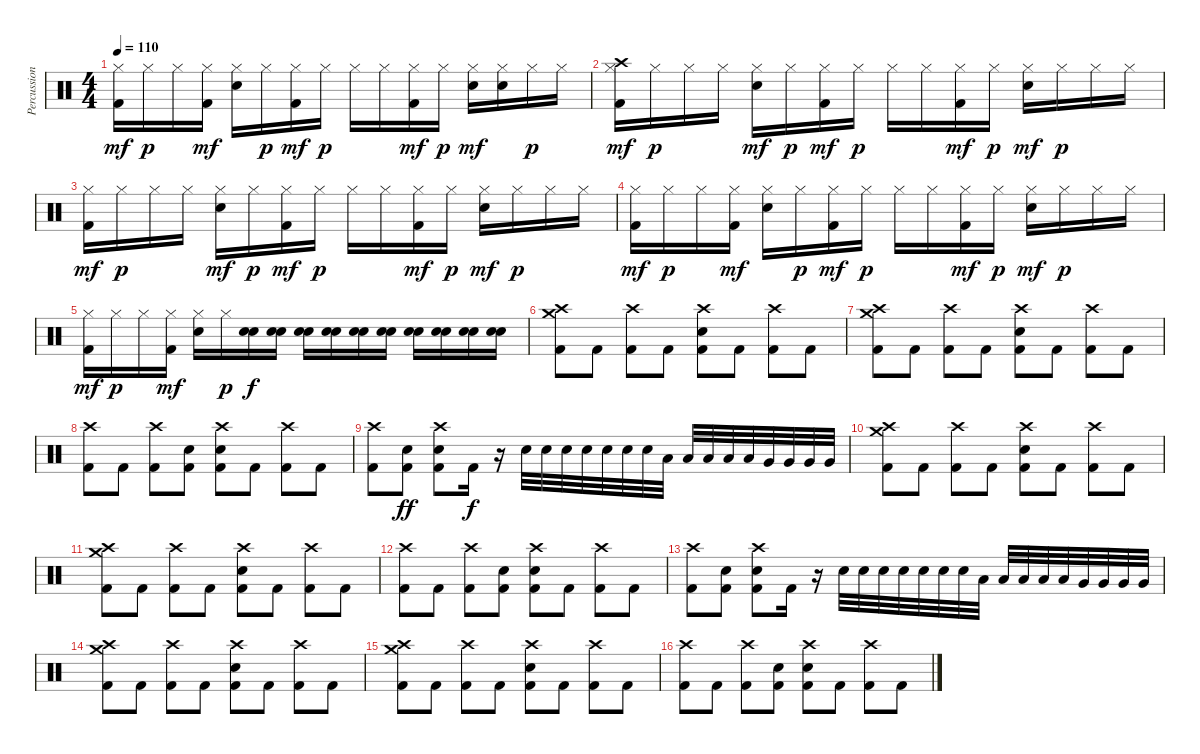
\track ("Percussion" "Percussion") {instrument percussion}
\staff {score}
\articulation defaults
\ts (4 4)
\tempo 110
\clef neutral
\ks c
("Hi-Hat (closed)" "Kick (hit) 2").16{dy mf} "Hi-Hat (closed)".16{dy p} "Hi-Hat (closed)".16 ("Hi-Hat (closed)" "Kick (hit) 2").16{dy mf} ("Hi-Hat (closed)" "Electric Snare (hit)").16 "Hi-Hat (closed)".16{dy p} ("Hi-Hat (closed)" "Kick (hit) 2").16{dy mf} "Hi-Hat (closed)".16{dy p} "Hi-Hat (closed)".16 "Hi-Hat (closed)".16 ("Hi-Hat (closed)" "Kick (hit) 2").16{dy mf} "Hi-Hat (closed)".16{dy p} ("Hi-Hat (closed)" "Electric Snare (hit)").16{dy mf} ("Hi-Hat (closed)" "Electric Snare (hit)").16 "Hi-Hat (closed)".16{dy p} "Hi-Hat (closed)".16 |
("Crash high (hit)" "Hi-Hat (closed)" "Kick (hit) 2").16{dy mf} "Hi-Hat (closed)".16{dy p} "Hi-Hat (closed)".16 "Hi-Hat (closed)".16 ("Hi-Hat (closed)" "Electric Snare (hit)").16{dy mf} "Hi-Hat (closed)".16{dy p} ("Hi-Hat (closed)" "Kick (hit) 2").16{dy mf} "Hi-Hat (closed)".16{dy p} "Hi-Hat (closed)".16 "Hi-Hat (closed)".16 ("Hi-Hat (closed)" "Kick (hit) 2").16{dy mf} "Hi-Hat (closed)".16{dy p} ("Hi-Hat (closed)" "Electric Snare (hit)").16{dy mf} "Hi-Hat (closed)".16{dy p} "Hi-Hat (closed)".16 "Hi-Hat (closed)".16 |
("Hi-Hat (closed)" "Kick (hit) 2").16{dy mf} "Hi-Hat (closed)".16{dy p} "Hi-Hat (closed)".16 "Hi-Hat (closed)".16 ("Hi-Hat (closed)" "Electric Snare (hit)").16{dy mf} "Hi-Hat (closed)".16{dy p} ("Hi-Hat (closed)" "Kick (hit) 2").16{dy mf} "Hi-Hat (closed)".16{dy p} "Hi-Hat (closed)".16 "Hi-Hat (closed)".16 ("Hi-Hat (closed)" "Kick (hit) 2").16{dy mf} "Hi-Hat (closed)".16{dy p} ("Hi-Hat (closed)" "Electric Snare (hit)").16{dy mf} "Hi-Hat (closed)".16{dy p} "Hi-Hat (closed)".16 "Hi-Hat (closed)".16 |
("Hi-Hat (closed)" "Kick (hit) 2").16{dy mf} "Hi-Hat (closed)".16{dy p} "Hi-Hat (closed)".16 ("Hi-Hat (closed)" "Kick (hit) 2").16{dy mf} ("Hi-Hat (closed)" "Electric Snare (hit)").16 "Hi-Hat (closed)".16{dy p} ("Hi-Hat (closed)" "Kick (hit) 2").16{dy mf} "Hi-Hat (closed)".16{dy p} "Hi-Hat (closed)".16 "Hi-Hat (closed)".16 ("Hi-Hat (closed)" "Kick (hit) 2").16{dy mf} "Hi-Hat (closed)".16{dy p} ("Hi-Hat (closed)" "Electric Snare (hit)").16{dy mf} "Hi-Hat (closed)".16{dy p} "Hi-Hat (closed)".16 "Hi-Hat (closed)".16 |
("Hi-Hat (closed)" "Kick (hit) 2").16{dy mf} "Hi-Hat (closed)".16{dy p} "Hi-Hat (closed)".16 ("Hi-Hat (closed)" "Kick (hit) 2").16{dy mf} ("Hi-Hat (closed)" "Electric Snare (hit)").16 "Hi-Hat (closed)".16{dy p} ("Electric Snare (hit)" "Electric Snare (hit)").16{dy f} ("Electric Snare (hit)" "Electric Snare (hit)").16 ("Electric Snare (hit)" "Electric Snare (hit)").16 ("Electric Snare (hit)" "Electric Snare (hit)").16 ("Electric Snare (hit)" "Electric Snare (hit)").16 ("Electric Snare (hit)" "Electric Snare (hit)").16 ("Electric Snare (hit)" "Electric Snare (hit)").16 ("Electric Snare (hit)" "Electric Snare (hit)").16 ("Electric Snare (hit)" "Electric Snare (hit)").16 ("Electric Snare (hit)" "Electric Snare (hit)").16 |
("Crash high (hit)" "Crash medium (hit)" "Kick (hit) 2").8 "Kick (hit) 2".8 ("Crash high (hit)" "Kick (hit) 2").8 "Kick (hit) 2".8 ("Crash high (hit)" "Electric Snare (hit)" "Kick (hit) 2").8 "Kick (hit) 2".8 ("Crash high (hit)" "Kick (hit) 2").8 "Kick (hit) 2".8 |
("Crash high (hit)" "Crash medium (hit)" "Kick (hit) 2").8 "Kick (hit) 2".8 ("Crash high (hit)" "Kick (hit) 2").8 "Kick (hit) 2".8 ("Crash high (hit)" "Electric Snare (hit)" "Kick (hit) 2").8 "Kick (hit) 2".8 ("Crash high (hit)" "Kick (hit) 2").8 "Kick (hit) 2".8 |
("Crash high (hit)" "Kick (hit) 2").8 "Kick (hit) 2".8 ("Crash high (hit)" "Kick (hit) 2").8 ("Electric Snare (hit)" "Kick (hit) 2").8 ("Crash high (hit)" "Electric Snare (hit)" "Kick (hit) 2").8 "Kick (hit) 2".8 ("Crash high (hit)" "Kick (hit) 2").8 "Kick (hit) 2".8 |
("Crash high (hit)" "Kick (hit) 2").8 ("Electric Snare (hit)" "Kick (hit) 2").8{dy ff} ("Crash high (hit)" "Electric Snare (hit)" "Kick (hit) 2").8 "Kick (hit) 2".16{dy f} r.16 "Electric Snare (hit)".32 "Electric Snare (hit)".32 "Electric Snare (hit)".32 "Electric Snare (hit)".32 "Electric Snare (hit)".32 "Electric Snare (hit)".32 "Electric Snare (hit)".32 "Low Tom (hit)".32 "Low Tom (hit)".32 "Low Tom (hit)".32 "Low Tom (hit)".32 "Low Tom (hit)".32 "Very Low Tom (hit)".32 "Very Low Tom (hit)".32 "Very Low Tom (hit)".32 "Very Low Tom (hit)".32 |
("Crash high (hit)" "Crash medium (hit)" "Kick (hit) 2").8 "Kick (hit) 2".8 ("Crash high (hit)" "Kick (hit) 2").8 "Kick (hit) 2".8 ("Crash high (hit)" "Electric Snare (hit)" "Kick (hit) 2").8 "Kick (hit) 2".8 ("Crash high (hit)" "Kick (hit) 2").8 "Kick (hit) 2".8 |
("Crash high (hit)" "Crash medium (hit)" "Kick (hit) 2").8 "Kick (hit) 2".8 ("Crash high (hit)" "Kick (hit) 2").8 "Kick (hit) 2".8 ("Crash high (hit)" "Electric Snare (hit)" "Kick (hit) 2").8 "Kick (hit) 2".8 ("Crash high (hit)" "Kick (hit) 2").8 "Kick (hit) 2".8 |
("Crash high (hit)" "Kick (hit) 2").8 "Kick (hit) 2".8 ("Crash high (hit)" "Kick (hit) 2").8 ("Electric Snare (hit)" "Kick (hit) 2").8 ("Crash high (hit)" "Electric Snare (hit)" "Kick (hit) 2").8 "Kick (hit) 2".8 ("Crash high (hit)" "Kick (hit) 2").8 "Kick (hit) 2".8 |
("Crash high (hit)" "Kick (hit) 2").8 ("Electric Snare (hit)" "Kick (hit) 2").8 ("Crash high (hit)" "Electric Snare (hit)" "Kick (hit) 2").8 "Kick (hit) 2".16 r.16 "Electric Snare (hit)".32 "Electric Snare (hit)".32 "Electric Snare (hit)".32 "Electric Snare (hit)".32 "Electric Snare (hit)".32 "Electric Snare (hit)".32 "Electric Snare (hit)".32 "Low Tom (hit)".32 "Low Tom (hit)".32 "Low Tom (hit)".32 "Low Tom (hit)".32 "Low Tom (hit)".32 "Very Low Tom (hit)".32 "Very Low Tom (hit)".32 "Very Low Tom (hit)".32 "Very Low Tom (hit)".32 |
("Crash high (hit)" "Crash medium (hit)" "Kick (hit) 2").8 "Kick (hit) 2".8 ("Crash high (hit)" "Kick (hit) 2").8 "Kick (hit) 2".8 ("Crash high (hit)" "Electric Snare (hit)" "Kick (hit) 2").8 "Kick (hit) 2".8 ("Crash high (hit)" "Kick (hit) 2").8 "Kick (hit) 2".8 |
("Crash high (hit)" "Crash medium (hit)" "Kick (hit) 2").8 "Kick (hit) 2".8 ("Crash high (hit)" "Kick (hit) 2").8 "Kick (hit) 2".8 ("Crash high (hit)" "Electric Snare (hit)" "Kick (hit) 2").8 "Kick (hit) 2".8 ("Crash high (hit)" "Kick (hit) 2").8 "Kick (hit) 2".8 |
("Crash high (hit)" "Kick (hit) 2").8 "Kick (hit) 2".8 ("Crash high (hit)" "Kick (hit) 2").8 ("Electric Snare (hit)" "Kick (hit) 2").8 ("Crash high (hit)" "Electric Snare (hit)" "Kick (hit) 2").8 "Kick (hit) 2".8 ("Crash high (hit)" "Kick (hit) 2").8 "Kick (hit) 2".8
